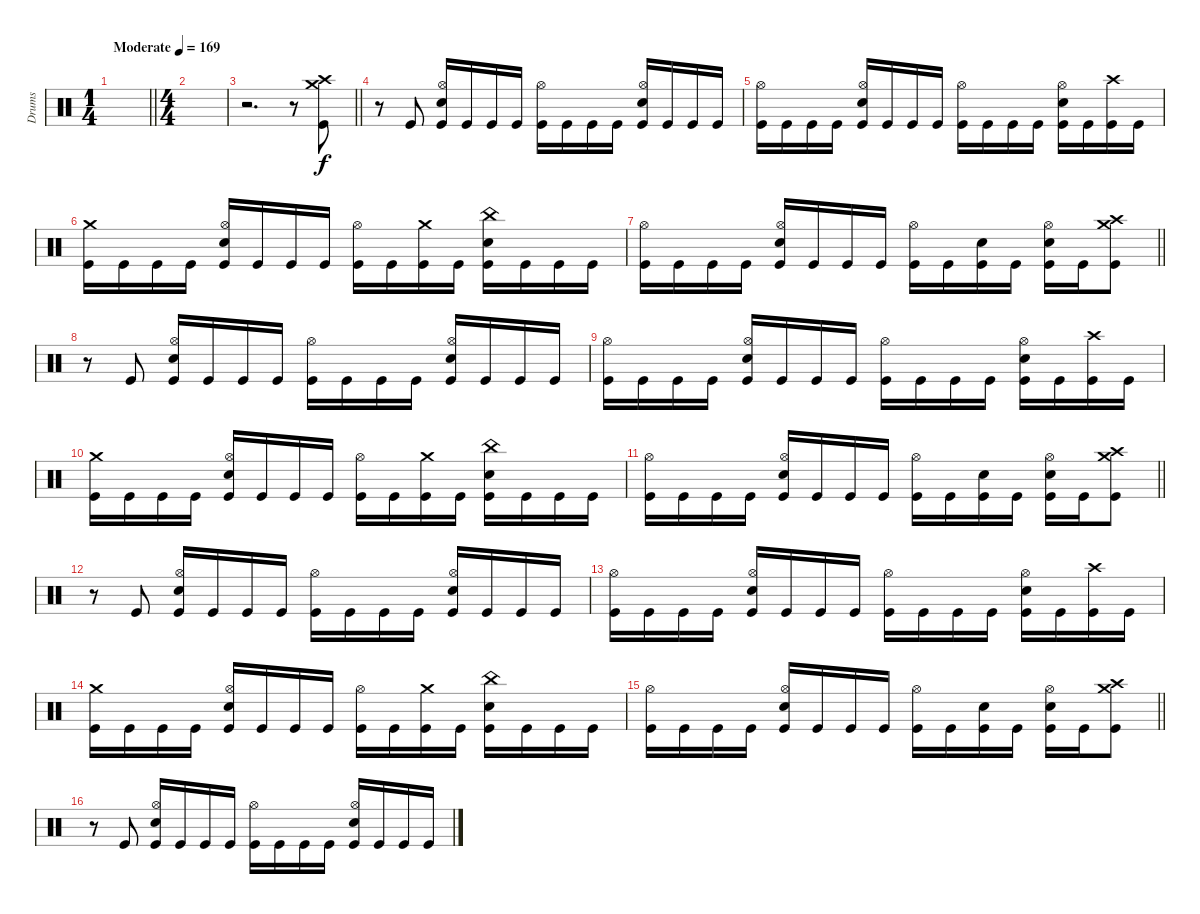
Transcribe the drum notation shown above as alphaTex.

\track ("Drums" "Drums") {instrument percussion}
\staff
\articulation defaults
\ts (1 4)
\tempo (169 "Moderate")
\clef neutral
\barLineRight lightlight
\ks c
|
\ts (4 4)
|
\barLineRight lightlight
r.2{d} r.8 ("Crash high (hit)" "Crash medium (hit)" "Kick (hit)").8 |
r.8 "Kick (hit)".8 ("Hi-Hat (open)" "Electric Snare (hit)" "Kick (hit)").16 "Kick (hit)".16 "Kick (hit)".16 "Kick (hit)".16 ("Hi-Hat (open)" "Kick (hit)").16 "Kick (hit)".16 "Kick (hit)".16 "Kick (hit)".16 ("Hi-Hat (open)" "Electric Snare (hit)" "Kick (hit)").16 "Kick (hit)".16 "Kick (hit)".16 "Kick (hit)".16 |
("Hi-Hat (open)" "Kick (hit)").16 "Kick (hit)".16 "Kick (hit)".16 "Kick (hit)".16 ("Hi-Hat (open)" "Electric Snare (hit)" "Kick (hit)").16 "Kick (hit)".16 "Kick (hit)".16 "Kick (hit)".16 ("Hi-Hat (open)" "Kick (hit)").16 "Kick (hit)".16 "Kick (hit)".16 "Kick (hit)".16 ("Hi-Hat (open)" "Electric Snare (hit)" "Kick (hit)").16 "Kick (hit)".16 ("Crash high (hit)" "Kick (hit)").16 "Kick (hit)".16 |
("Crash medium (hit)" "Kick (hit)").16 "Kick (hit)".16 "Kick (hit)".16 "Kick (hit)".16 ("Hi-Hat (open)" "Electric Snare (hit)" "Kick (hit)").16 "Kick (hit)".16 "Kick (hit)".16 "Kick (hit)".16 ("Hi-Hat (open)" "Kick (hit)").16 "Kick (hit)".16 ("Crash medium (hit)" "Kick (hit)").16 "Kick (hit)".16 ("China (hit)" "Electric Snare (hit)" "Kick (hit)").16 "Kick (hit)".16 "Kick (hit)".16 "Kick (hit)".16 |
\barLineRight lightlight
("Hi-Hat (open)" "Kick (hit)").16 "Kick (hit)".16 "Kick (hit)".16 "Kick (hit)".16 ("Hi-Hat (open)" "Electric Snare (hit)" "Kick (hit)").16 "Kick (hit)".16 "Kick (hit)".16 "Kick (hit)".16 ("Hi-Hat (open)" "Kick (hit)").16 "Kick (hit)".16 ("Electric Snare (hit)" "Kick (hit)").16 "Kick (hit)".16 ("Hi-Hat (open)" "Electric Snare (hit)" "Kick (hit)").16 "Kick (hit)".16 ("Crash high (hit)" "Crash medium (hit)" "Kick (hit)").8 |
r.8 "Kick (hit)".8 ("Hi-Hat (open)" "Electric Snare (hit)" "Kick (hit)").16 "Kick (hit)".16 "Kick (hit)".16 "Kick (hit)".16 ("Hi-Hat (open)" "Kick (hit)").16 "Kick (hit)".16 "Kick (hit)".16 "Kick (hit)".16 ("Hi-Hat (open)" "Electric Snare (hit)" "Kick (hit)").16 "Kick (hit)".16 "Kick (hit)".16 "Kick (hit)".16 |
("Hi-Hat (open)" "Kick (hit)").16 "Kick (hit)".16 "Kick (hit)".16 "Kick (hit)".16 ("Hi-Hat (open)" "Electric Snare (hit)" "Kick (hit)").16 "Kick (hit)".16 "Kick (hit)".16 "Kick (hit)".16 ("Hi-Hat (open)" "Kick (hit)").16 "Kick (hit)".16 "Kick (hit)".16 "Kick (hit)".16 ("Hi-Hat (open)" "Electric Snare (hit)" "Kick (hit)").16 "Kick (hit)".16 ("Crash high (hit)" "Kick (hit)").16 "Kick (hit)".16 |
("Crash medium (hit)" "Kick (hit)").16 "Kick (hit)".16 "Kick (hit)".16 "Kick (hit)".16 ("Hi-Hat (open)" "Electric Snare (hit)" "Kick (hit)").16 "Kick (hit)".16 "Kick (hit)".16 "Kick (hit)".16 ("Hi-Hat (open)" "Kick (hit)").16 "Kick (hit)".16 ("Crash medium (hit)" "Kick (hit)").16 "Kick (hit)".16 ("China (hit)" "Electric Snare (hit)" "Kick (hit)").16 "Kick (hit)".16 "Kick (hit)".16 "Kick (hit)".16 |
\barLineRight lightlight
("Hi-Hat (open)" "Kick (hit)").16 "Kick (hit)".16 "Kick (hit)".16 "Kick (hit)".16 ("Hi-Hat (open)" "Electric Snare (hit)" "Kick (hit)").16 "Kick (hit)".16 "Kick (hit)".16 "Kick (hit)".16 ("Hi-Hat (open)" "Kick (hit)").16 "Kick (hit)".16 ("Electric Snare (hit)" "Kick (hit)").16 "Kick (hit)".16 ("Hi-Hat (open)" "Electric Snare (hit)" "Kick (hit)").16 "Kick (hit)".16 ("Crash high (hit)" "Crash medium (hit)" "Kick (hit)").8 |
r.8 "Kick (hit)".8 ("Hi-Hat (open)" "Electric Snare (hit)" "Kick (hit)").16 "Kick (hit)".16 "Kick (hit)".16 "Kick (hit)".16 ("Hi-Hat (open)" "Kick (hit)").16 "Kick (hit)".16 "Kick (hit)".16 "Kick (hit)".16 ("Hi-Hat (open)" "Electric Snare (hit)" "Kick (hit)").16 "Kick (hit)".16 "Kick (hit)".16 "Kick (hit)".16 |
("Hi-Hat (open)" "Kick (hit)").16 "Kick (hit)".16 "Kick (hit)".16 "Kick (hit)".16 ("Hi-Hat (open)" "Electric Snare (hit)" "Kick (hit)").16 "Kick (hit)".16 "Kick (hit)".16 "Kick (hit)".16 ("Hi-Hat (open)" "Kick (hit)").16 "Kick (hit)".16 "Kick (hit)".16 "Kick (hit)".16 ("Hi-Hat (open)" "Electric Snare (hit)" "Kick (hit)").16 "Kick (hit)".16 ("Crash high (hit)" "Kick (hit)").16 "Kick (hit)".16 |
("Crash medium (hit)" "Kick (hit)").16 "Kick (hit)".16 "Kick (hit)".16 "Kick (hit)".16 ("Hi-Hat (open)" "Electric Snare (hit)" "Kick (hit)").16 "Kick (hit)".16 "Kick (hit)".16 "Kick (hit)".16 ("Hi-Hat (open)" "Kick (hit)").16 "Kick (hit)".16 ("Crash medium (hit)" "Kick (hit)").16 "Kick (hit)".16 ("China (hit)" "Electric Snare (hit)" "Kick (hit)").16 "Kick (hit)".16 "Kick (hit)".16 "Kick (hit)".16 |
\barLineRight lightlight
("Hi-Hat (open)" "Kick (hit)").16 "Kick (hit)".16 "Kick (hit)".16 "Kick (hit)".16 ("Hi-Hat (open)" "Electric Snare (hit)" "Kick (hit)").16 "Kick (hit)".16 "Kick (hit)".16 "Kick (hit)".16 ("Hi-Hat (open)" "Kick (hit)").16 "Kick (hit)".16 ("Electric Snare (hit)" "Kick (hit)").16 "Kick (hit)".16 ("Hi-Hat (open)" "Electric Snare (hit)" "Kick (hit)").16 "Kick (hit)".16 ("Crash high (hit)" "Crash medium (hit)" "Kick (hit)").8 |
r.8 "Kick (hit)".8 ("Hi-Hat (open)" "Electric Snare (hit)" "Kick (hit)").16 "Kick (hit)".16 "Kick (hit)".16 "Kick (hit)".16 ("Hi-Hat (open)" "Kick (hit)").16 "Kick (hit)".16 "Kick (hit)".16 "Kick (hit)".16 ("Hi-Hat (open)" "Electric Snare (hit)" "Kick (hit)").16 "Kick (hit)".16 "Kick (hit)".16 "Kick (hit)".16
